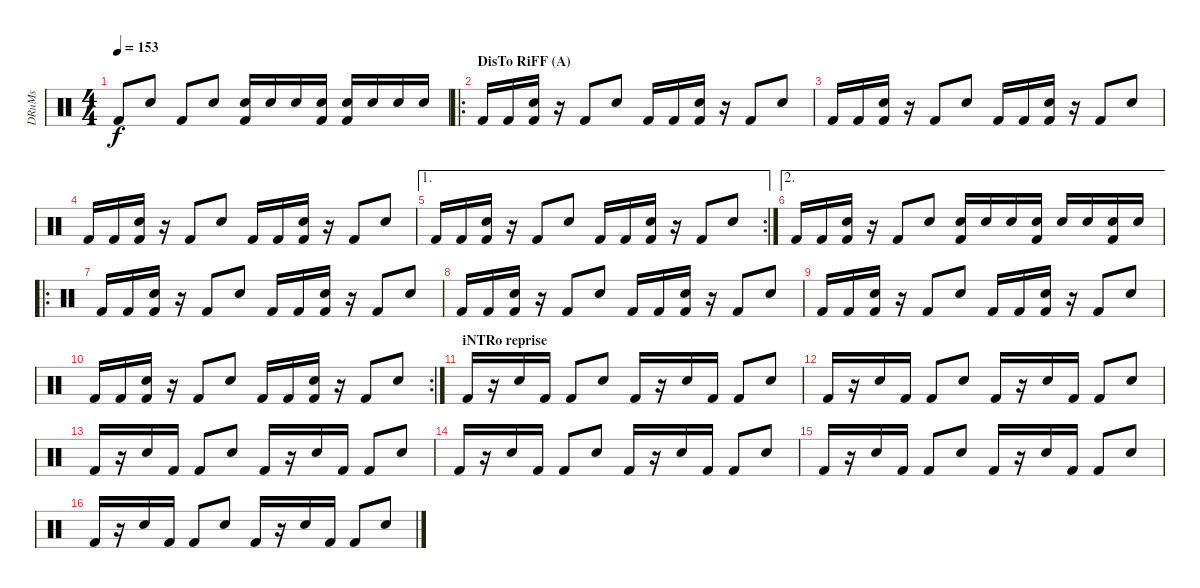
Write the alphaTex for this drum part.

\track ("DRuMs" "DRuMs") {instrument percussion}
\staff {score}
\articulation defaults
\ts (4 4)
\tempo 153
\clef neutral
\ks c "Kick (hit) 2".8{dy f} "Electric Snare (hit)".8 "Kick (hit) 2".8 "Electric Snare (hit)".8
("Metronome (bell)" "Kick (hit) 2").16 "Metronome (bell)".16 "Metronome (bell)".16 ("Metronome (bell)" "Kick (hit) 2").16 ("Metronome (bell)" "Kick (hit) 2").16 "Metronome (bell)".16 "Metronome (bell)".16 "Metronome (bell)".16 |
\ro
\section ("" "DisTo RiFF (A)")
"Kick (hit) 2".16 "Kick (hit) 2".16 ("Electric Snare (hit)" "Kick (hit) 2").16 r.16 "Kick (hit) 2".8 "Electric Snare (hit)".8 "Kick (hit) 2".16 "Kick (hit) 2".16 ("Electric Snare (hit)" "Kick (hit) 2").16 r.16 "Kick (hit) 2".8 "Electric Snare (hit)".8 |
"Kick (hit) 2".16 "Kick (hit) 2".16 ("Electric Snare (hit)" "Kick (hit) 2").16 r.16 "Kick (hit) 2".8 "Electric Snare (hit)".8 "Kick (hit) 2".16 "Kick (hit) 2".16 ("Electric Snare (hit)" "Kick (hit) 2").16 r.16 "Kick (hit) 2".8 "Electric Snare (hit)".8 |
"Kick (hit) 2".16 "Kick (hit) 2".16 ("Electric Snare (hit)" "Kick (hit) 2").16 r.16 "Kick (hit) 2".8 "Electric Snare (hit)".8 "Kick (hit) 2".16 "Kick (hit) 2".16 ("Electric Snare (hit)" "Kick (hit) 2").16 r.16 "Kick (hit) 2".8 "Electric Snare (hit)".8 |
\ae 1
\rc 2 "Kick (hit) 2".16 "Kick (hit) 2".16
("Electric Snare (hit)" "Kick (hit) 2").16 r.16 "Kick (hit) 2".8 "Electric Snare (hit)".8 "Kick (hit) 2".16 "Kick (hit) 2".16 ("Electric Snare (hit)" "Kick (hit) 2").16 r.16 "Kick (hit) 2".8 "Electric Snare (hit)".8 |
\ae 2 "Kick (hit) 2".16 "Kick (hit) 2".16
("Electric Snare (hit)" "Kick (hit) 2").16 r.16 "Kick (hit) 2".8 "Electric Snare (hit)".8 ("Metronome (bell)" "Kick (hit) 2").16 "Metronome (bell)".16 "Metronome (bell)".16 ("Metronome (bell)" "Kick (hit) 2").16 "Metronome (bell)".16 "Metronome (bell)".16 ("Metronome (bell)" "Kick (hit) 2").16 "Metronome (bell)".16 |
\ro "Kick (hit) 2".16 "Kick (hit) 2".16
("Electric Snare (hit)" "Kick (hit) 2").16 r.16 "Kick (hit) 2".8 "Electric Snare (hit)".8 "Kick (hit) 2".16 "Kick (hit) 2".16 ("Electric Snare (hit)" "Kick (hit) 2").16 r.16 "Kick (hit) 2".8 "Electric Snare (hit)".8 |
"Kick (hit) 2".16 "Kick (hit) 2".16 ("Electric Snare (hit)" "Kick (hit) 2").16 r.16 "Kick (hit) 2".8 "Electric Snare (hit)".8 "Kick (hit) 2".16 "Kick (hit) 2".16 ("Electric Snare (hit)" "Kick (hit) 2").16 r.16 "Kick (hit) 2".8 "Electric Snare (hit)".8 |
"Kick (hit) 2".16 "Kick (hit) 2".16 ("Electric Snare (hit)" "Kick (hit) 2").16 r.16 "Kick (hit) 2".8 "Electric Snare (hit)".8 "Kick (hit) 2".16 "Kick (hit) 2".16 ("Electric Snare (hit)" "Kick (hit) 2").16 r.16 "Kick (hit) 2".8 "Electric Snare (hit)".8 |
\rc 2 "Kick (hit) 2".16 "Kick (hit) 2".16
("Electric Snare (hit)" "Kick (hit) 2").16 r.16 "Kick (hit) 2".8 "Electric Snare (hit)".8 "Kick (hit) 2".16 "Kick (hit) 2".16 ("Electric Snare (hit)" "Kick (hit) 2").16 r.16 "Kick (hit) 2".8 "Electric Snare (hit)".8 |
\section ("" "iNTRo reprise")
"Kick (hit) 2".16 r.16 "Electric Snare (hit)".16 "Kick (hit) 2".16 "Kick (hit) 2".8 "Electric Snare (hit)".8 "Kick (hit) 2".16 r.16 "Electric Snare (hit)".16 "Kick (hit) 2".16 "Kick (hit) 2".8 "Electric Snare (hit)".8 |
"Kick (hit) 2".16 r.16 "Electric Snare (hit)".16 "Kick (hit) 2".16 "Kick (hit) 2".8 "Electric Snare (hit)".8 "Kick (hit) 2".16 r.16 "Electric Snare (hit)".16 "Kick (hit) 2".16 "Kick (hit) 2".8 "Electric Snare (hit)".8 |
"Kick (hit) 2".16 r.16 "Electric Snare (hit)".16 "Kick (hit) 2".16 "Kick (hit) 2".8 "Electric Snare (hit)".8 "Kick (hit) 2".16 r.16 "Electric Snare (hit)".16 "Kick (hit) 2".16 "Kick (hit) 2".8 "Electric Snare (hit)".8 |
"Kick (hit) 2".16 r.16 "Electric Snare (hit)".16 "Kick (hit) 2".16 "Kick (hit) 2".8 "Electric Snare (hit)".8 "Kick (hit) 2".16 r.16 "Electric Snare (hit)".16 "Kick (hit) 2".16 "Kick (hit) 2".8 "Electric Snare (hit)".8 |
"Kick (hit) 2".16 r.16 "Electric Snare (hit)".16 "Kick (hit) 2".16 "Kick (hit) 2".8 "Electric Snare (hit)".8 "Kick (hit) 2".16 r.16 "Electric Snare (hit)".16 "Kick (hit) 2".16 "Kick (hit) 2".8 "Electric Snare (hit)".8 |
"Kick (hit) 2".16 r.16 "Electric Snare (hit)".16 "Kick (hit) 2".16 "Kick (hit) 2".8 "Electric Snare (hit)".8 "Kick (hit) 2".16 r.16 "Electric Snare (hit)".16 "Kick (hit) 2".16 "Kick (hit) 2".8 "Electric Snare (hit)".8
